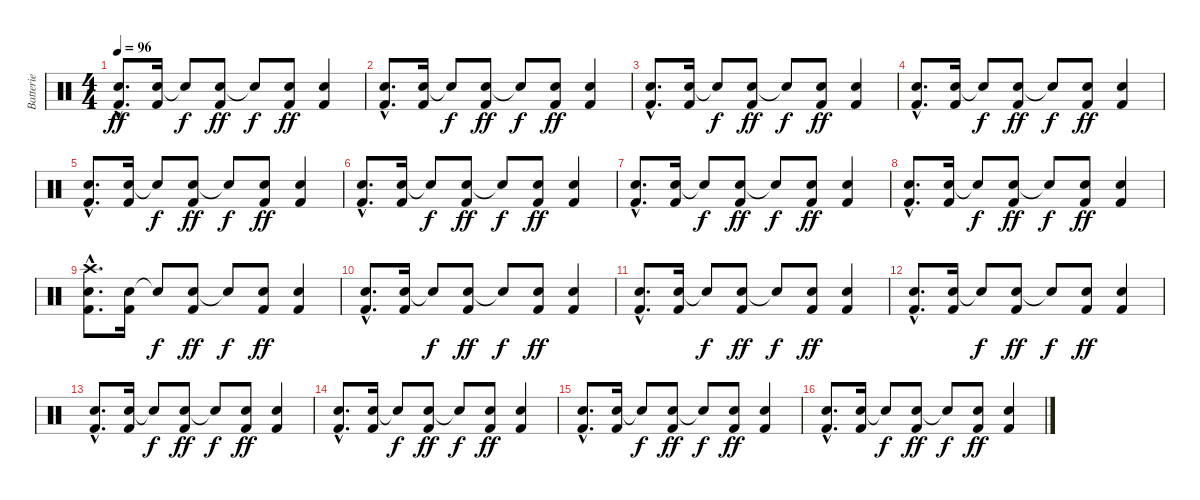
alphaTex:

\track ("Batterie" "Batterie") {instrument percussion}
\staff {score}
\articulation defaults
\ts (4 4)
\tempo 96
\clef neutral
\ks c
("Snare (hit) 2"{hac} "Kick (hit) 2"{hac}).8{d dy ff} ("Snare (hit) 2" "Kick (hit) 2").16 "Snare (hit)"{t}.8{dy f} ("Snare (hit) 2" "Kick (hit) 2").8{dy ff} "Snare (hit)"{t}.8{dy f} ("Snare (hit) 2" "Kick (hit) 2").8{dy ff} ("Snare (hit) 2" "Kick (hit) 2").4 |
("Snare (hit) 2"{hac} "Kick (hit) 2"{hac}).8{d} ("Snare (hit) 2" "Kick (hit) 2").16 "Snare (hit)"{t}.8{dy f} ("Snare (hit) 2" "Kick (hit) 2").8{dy ff} "Snare (hit)"{t}.8{dy f} ("Snare (hit) 2" "Kick (hit) 2").8{dy ff} ("Snare (hit) 2" "Kick (hit) 2").4 |
("Snare (hit) 2"{hac} "Kick (hit) 2"{hac}).8{d} ("Snare (hit) 2" "Kick (hit) 2").16 "Snare (hit)"{t}.8{dy f} ("Snare (hit) 2" "Kick (hit) 2").8{dy ff} "Snare (hit)"{t}.8{dy f} ("Snare (hit) 2" "Kick (hit) 2").8{dy ff} ("Snare (hit) 2" "Kick (hit) 2").4 |
("Snare (hit) 2"{hac} "Kick (hit) 2"{hac}).8{d} ("Snare (hit) 2" "Kick (hit) 2").16 "Snare (hit)"{t}.8{dy f} ("Snare (hit) 2" "Kick (hit) 2").8{dy ff} "Snare (hit)"{t}.8{dy f} ("Snare (hit) 2" "Kick (hit) 2").8{dy ff} ("Snare (hit) 2" "Kick (hit) 2").4 |
("Snare (hit) 2"{hac} "Kick (hit) 2"{hac}).8{d} ("Snare (hit) 2" "Kick (hit) 2").16 "Snare (hit)"{t}.8{dy f} ("Snare (hit) 2" "Kick (hit) 2").8{dy ff} "Snare (hit)"{t}.8{dy f} ("Snare (hit) 2" "Kick (hit) 2").8{dy ff} ("Snare (hit) 2" "Kick (hit) 2").4 |
("Snare (hit) 2"{hac} "Kick (hit) 2"{hac}).8{d} ("Snare (hit) 2" "Kick (hit) 2").16 "Snare (hit)"{t}.8{dy f} ("Snare (hit) 2" "Kick (hit) 2").8{dy ff} "Snare (hit)"{t}.8{dy f} ("Snare (hit) 2" "Kick (hit) 2").8{dy ff} ("Snare (hit) 2" "Kick (hit) 2").4 |
("Snare (hit) 2"{hac} "Kick (hit) 2"{hac}).8{d} ("Snare (hit) 2" "Kick (hit) 2").16 "Snare (hit)"{t}.8{dy f} ("Snare (hit) 2" "Kick (hit) 2").8{dy ff} "Snare (hit)"{t}.8{dy f} ("Snare (hit) 2" "Kick (hit) 2").8{dy ff} ("Snare (hit) 2" "Kick (hit) 2").4 |
("Snare (hit) 2"{hac} "Kick (hit) 2"{hac}).8{d} ("Snare (hit) 2" "Kick (hit) 2").16 "Snare (hit)"{t}.8{dy f} ("Snare (hit) 2" "Kick (hit) 2").8{dy ff} "Snare (hit)"{t}.8{dy f} ("Snare (hit) 2" "Kick (hit) 2").8{dy ff} ("Snare (hit) 2" "Kick (hit) 2").4 |
("Crash high (hit)"{hac} "Snare (hit) 2"{hac} "Kick (hit) 2"{hac}).8{d} ("Snare (hit) 2" "Kick (hit) 2").16 "Snare (hit)"{t}.8{dy f} ("Snare (hit) 2" "Kick (hit) 2").8{dy ff} "Snare (hit)"{t}.8{dy f} ("Snare (hit) 2" "Kick (hit) 2").8{dy ff} ("Snare (hit) 2" "Kick (hit) 2").4 |
("Snare (hit) 2"{hac} "Kick (hit) 2"{hac}).8{d} ("Snare (hit) 2" "Kick (hit) 2").16 "Snare (hit)"{t}.8{dy f} ("Snare (hit) 2" "Kick (hit) 2").8{dy ff} "Snare (hit)"{t}.8{dy f} ("Snare (hit) 2" "Kick (hit) 2").8{dy ff} ("Snare (hit) 2" "Kick (hit) 2").4 |
("Snare (hit) 2"{hac} "Kick (hit) 2"{hac}).8{d} ("Snare (hit) 2" "Kick (hit) 2").16 "Snare (hit)"{t}.8{dy f} ("Snare (hit) 2" "Kick (hit) 2").8{dy ff} "Snare (hit)"{t}.8{dy f} ("Snare (hit) 2" "Kick (hit) 2").8{dy ff} ("Snare (hit) 2" "Kick (hit) 2").4 |
("Snare (hit) 2"{hac} "Kick (hit) 2"{hac}).8{d} ("Snare (hit) 2" "Kick (hit) 2").16 "Snare (hit)"{t}.8{dy f} ("Snare (hit) 2" "Kick (hit) 2").8{dy ff} "Snare (hit)"{t}.8{dy f} ("Snare (hit) 2" "Kick (hit) 2").8{dy ff} ("Snare (hit) 2" "Kick (hit) 2").4 |
("Snare (hit) 2"{hac} "Kick (hit) 2"{hac}).8{d} ("Snare (hit) 2" "Kick (hit) 2").16 "Snare (hit)"{t}.8{dy f} ("Snare (hit) 2" "Kick (hit) 2").8{dy ff} "Snare (hit)"{t}.8{dy f} ("Snare (hit) 2" "Kick (hit) 2").8{dy ff} ("Snare (hit) 2" "Kick (hit) 2").4 |
("Snare (hit) 2"{hac} "Kick (hit) 2"{hac}).8{d} ("Snare (hit) 2" "Kick (hit) 2").16 "Snare (hit)"{t}.8{dy f} ("Snare (hit) 2" "Kick (hit) 2").8{dy ff} "Snare (hit)"{t}.8{dy f} ("Snare (hit) 2" "Kick (hit) 2").8{dy ff} ("Snare (hit) 2" "Kick (hit) 2").4 |
("Snare (hit) 2"{hac} "Kick (hit) 2"{hac}).8{d} ("Snare (hit) 2" "Kick (hit) 2").16 "Snare (hit)"{t}.8{dy f} ("Snare (hit) 2" "Kick (hit) 2").8{dy ff} "Snare (hit)"{t}.8{dy f} ("Snare (hit) 2" "Kick (hit) 2").8{dy ff} ("Snare (hit) 2" "Kick (hit) 2").4 |
("Snare (hit) 2"{hac} "Kick (hit) 2"{hac}).8{d} ("Snare (hit) 2" "Kick (hit) 2").16 "Snare (hit)"{t}.8{dy f} ("Snare (hit) 2" "Kick (hit) 2").8{dy ff} "Snare (hit)"{t}.8{dy f} ("Snare (hit) 2" "Kick (hit) 2").8{dy ff} ("Snare (hit) 2" "Kick (hit) 2").4
